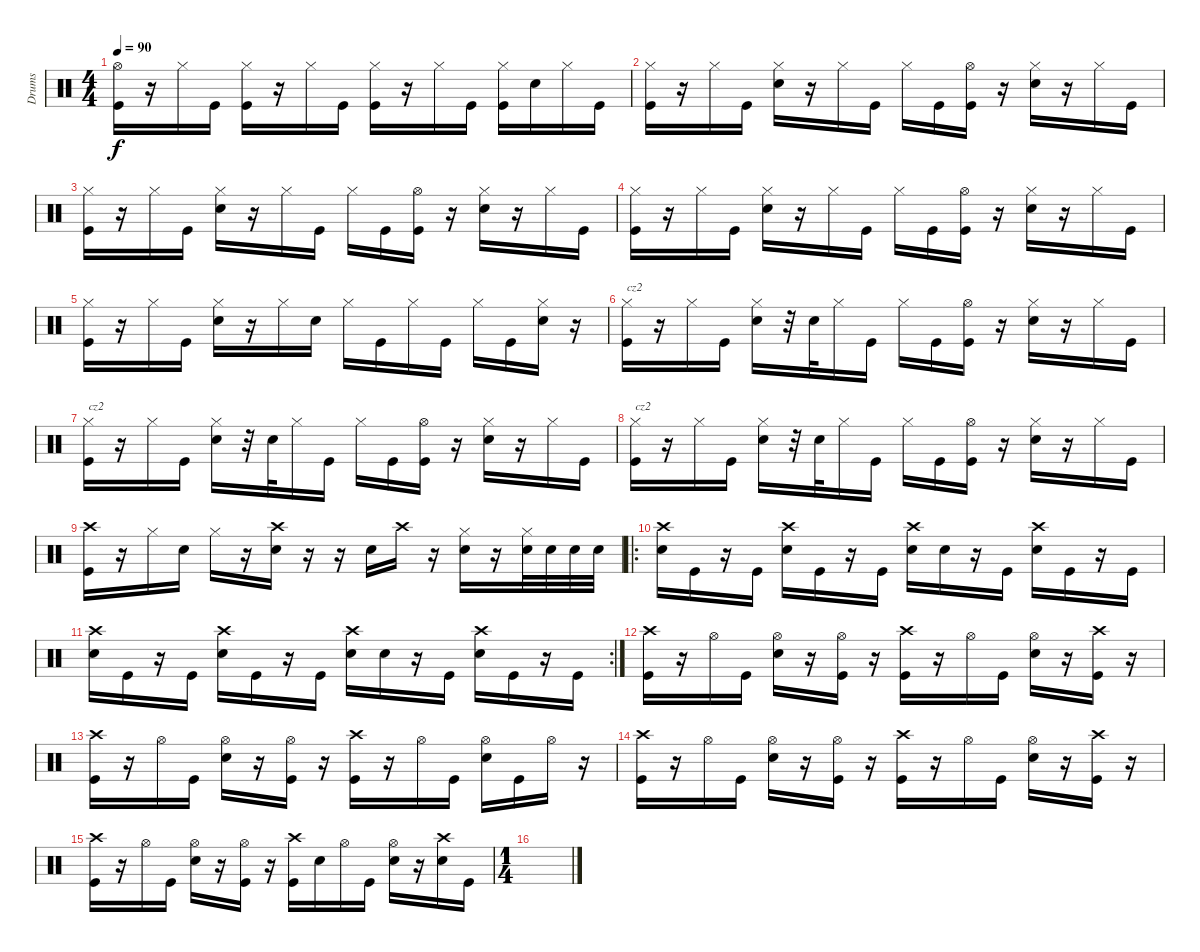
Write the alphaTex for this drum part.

\track ("Drums" "Drums") {instrument percussion}
\staff {score}
\articulation defaults
\ts (4 4)
\tempo 90
\clef neutral
\ks c
("Hi-Hat (open)" "Kick (hit)").16{dy f} r.16 "Hi-Hat (closed)".16 "Kick (hit)".16 ("Hi-Hat (closed)" "Kick (hit)").16 r.16 "Hi-Hat (closed)".16 "Kick (hit)".16 ("Hi-Hat (closed)" "Kick (hit)").16 r.16 "Hi-Hat (closed)".16 "Kick (hit)".16 ("Hi-Hat (closed)" "Kick (hit)").16 "Snare (hit) 2".16 "Hi-Hat (closed)".16 "Kick (hit)".16 |
("Hi-Hat (closed)" "Kick (hit)").16 r.16 "Hi-Hat (closed)".16 "Kick (hit)".16 ("Hi-Hat (closed)" "Snare (hit) 2").16 r.16 "Hi-Hat (closed)".16 "Kick (hit)".16 "Hi-Hat (closed)".16 "Kick (hit)".16 ("Hi-Hat (open)" "Kick (hit)").16 r.16 ("Hi-Hat (closed)" "Snare (hit) 2").16 r.16 "Hi-Hat (closed)".16 "Kick (hit)".16 |
("Hi-Hat (closed)" "Kick (hit)").16 r.16 "Hi-Hat (closed)".16 "Kick (hit)".16 ("Hi-Hat (closed)" "Snare (hit) 2").16 r.16 "Hi-Hat (closed)".16 "Kick (hit)".16 "Hi-Hat (closed)".16 "Kick (hit)".16 ("Hi-Hat (open)" "Kick (hit)").16 r.16 ("Hi-Hat (closed)" "Snare (hit) 2").16 r.16 "Hi-Hat (closed)".16 "Kick (hit)".16 |
("Hi-Hat (closed)" "Kick (hit)").16 r.16 "Hi-Hat (closed)".16 "Kick (hit)".16 ("Hi-Hat (closed)" "Snare (hit) 2").16 r.16 "Hi-Hat (closed)".16 "Kick (hit)".16 "Hi-Hat (closed)".16 "Kick (hit)".16 ("Hi-Hat (open)" "Kick (hit)").16 r.16 ("Hi-Hat (closed)" "Snare (hit) 2").16 r.16 "Hi-Hat (closed)".16 "Kick (hit)".16 |
("Hi-Hat (closed)" "Kick (hit)").16 r.16 "Hi-Hat (closed)".16 "Kick (hit)".16 ("Hi-Hat (closed)" "Snare (hit) 2").16 r.16 "Hi-Hat (closed)".16 "Snare (hit) 2".16 "Hi-Hat (closed)".16 "Kick (hit)".16 "Hi-Hat (closed)".16 "Kick (hit)".16 "Hi-Hat (closed)".16 "Kick (hit)".16 ("Hi-Hat (closed)" "Snare (hit) 2").16 r.16 |
("Hi-Hat (closed)" "Kick (hit)").16{txt "cz2"} r.16 "Hi-Hat (closed)".16 "Kick (hit)".16 ("Hi-Hat (closed)" "Snare (hit) 2").16 r.32 "Snare (hit) 2".32 "Hi-Hat (closed)".16 "Kick (hit)".16 "Hi-Hat (closed)".16 "Kick (hit)".16 ("Hi-Hat (open)" "Kick (hit)").16 r.16 ("Hi-Hat (closed)" "Snare (hit) 2").16 r.16 "Hi-Hat (closed)".16 "Kick (hit)".16 |
("Hi-Hat (closed)" "Kick (hit)").16{txt "cz2"} r.16 "Hi-Hat (closed)".16 "Kick (hit)".16 ("Hi-Hat (closed)" "Snare (hit) 2").16 r.32 "Snare (hit) 2".32 "Hi-Hat (closed)".16 "Kick (hit)".16 "Hi-Hat (closed)".16 "Kick (hit)".16 ("Hi-Hat (open)" "Kick (hit)").16 r.16 ("Hi-Hat (closed)" "Snare (hit) 2").16 r.16 "Hi-Hat (closed)".16 "Kick (hit)".16 |
("Hi-Hat (closed)" "Kick (hit)").16{txt "cz2"} r.16 "Hi-Hat (closed)".16 "Kick (hit)".16 ("Hi-Hat (closed)" "Snare (hit) 2").16 r.32 "Snare (hit) 2".32 "Hi-Hat (closed)".16 "Kick (hit)".16 "Hi-Hat (closed)".16 "Kick (hit)".16 ("Hi-Hat (open)" "Kick (hit)").16 r.16 ("Hi-Hat (closed)" "Snare (hit) 2").16 r.16 "Hi-Hat (closed)".16 "Kick (hit)".16 |
("Crash high (hit)" "Kick (hit)").16 r.16 "Hi-Hat (closed)".16 "Snare (hit) 2".16 "Hi-Hat (closed)".16 r.16 ("Crash high (hit)" "Snare (hit) 2").16 r.16 r.16 "Snare (hit) 2".16 "Crash high (hit)".16 r.16 ("Hi-Hat (closed)" "Snare (hit) 2").16 r.16 ("Hi-Hat (closed)" "Snare (hit) 2").32 "Snare (hit) 2".32 "Snare (hit) 2".32 "Snare (hit) 2".32 |
\ro
("Crash high (hit)" "Snare (hit) 2").16 "Kick (hit)".16 r.16 "Kick (hit)".16 ("Crash high (hit)" "Snare (hit) 2").16 "Kick (hit)".16 r.16 "Kick (hit)".16 ("Crash high (hit)" "Snare (hit) 2").16 "Snare (hit) 2".16 r.16 "Kick (hit)".16 ("Crash high (hit)" "Snare (hit) 2").16 "Kick (hit)".16 r.16 "Kick (hit)".16 |
\rc 2
("Crash high (hit)" "Snare (hit) 2").16 "Kick (hit)".16 r.16 "Kick (hit)".16 ("Crash high (hit)" "Snare (hit) 2").16 "Kick (hit)".16 r.16 "Kick (hit)".16 ("Crash high (hit)" "Snare (hit) 2").16 "Snare (hit) 2".16 r.16 "Kick (hit)".16 ("Crash high (hit)" "Snare (hit) 2").16 "Kick (hit)".16 r.16 "Kick (hit)".16 |
("Crash high (hit)" "Kick (hit)").16 r.16 "Hi-Hat (open)".16 "Kick (hit)".16 ("Hi-Hat (open)" "Snare (hit) 2").16 r.16 ("Hi-Hat (open)" "Kick (hit)").16 r.16 ("Crash high (hit)" "Kick (hit)").16 r.16 "Hi-Hat (open)".16 "Kick (hit)".16 ("Hi-Hat (open)" "Snare (hit) 2").16 r.16 ("Crash high (hit)" "Kick (hit)").16 r.16 |
("Crash high (hit)" "Kick (hit)").16 r.16 "Hi-Hat (open)".16 "Kick (hit)".16 ("Hi-Hat (open)" "Snare (hit) 2").16 r.16 ("Hi-Hat (open)" "Kick (hit)").16 r.16 ("Crash high (hit)" "Kick (hit)").16 r.16 "Hi-Hat (open)".16 "Kick (hit)".16 ("Hi-Hat (open)" "Snare (hit) 2").16 "Kick (hit)".16 "Hi-Hat (open)".16 r.16 |
("Crash high (hit)" "Kick (hit)").16 r.16 "Hi-Hat (open)".16 "Kick (hit)".16 ("Hi-Hat (open)" "Snare (hit) 2").16 r.16 ("Hi-Hat (open)" "Kick (hit)").16 r.16 ("Crash high (hit)" "Kick (hit)").16 r.16 "Hi-Hat (open)".16 "Kick (hit)".16 ("Hi-Hat (open)" "Snare (hit) 2").16 r.16 ("Crash high (hit)" "Kick (hit)").16 r.16 |
("Crash high (hit)" "Kick (hit)").16 r.16 "Hi-Hat (open)".16 "Kick (hit)".16 ("Hi-Hat (open)" "Snare (hit) 2").16 r.16 ("Hi-Hat (open)" "Kick (hit)").16 r.16 ("Crash high (hit)" "Kick (hit)").16 "Snare (hit) 2".16 "Hi-Hat (open)".16 "Kick (hit)".16 ("Hi-Hat (open)" "Snare (hit) 2").16 r.16 ("Crash high (hit)" "Snare (hit) 2").16 "Kick (hit)".16 |
\ts (1 4)
